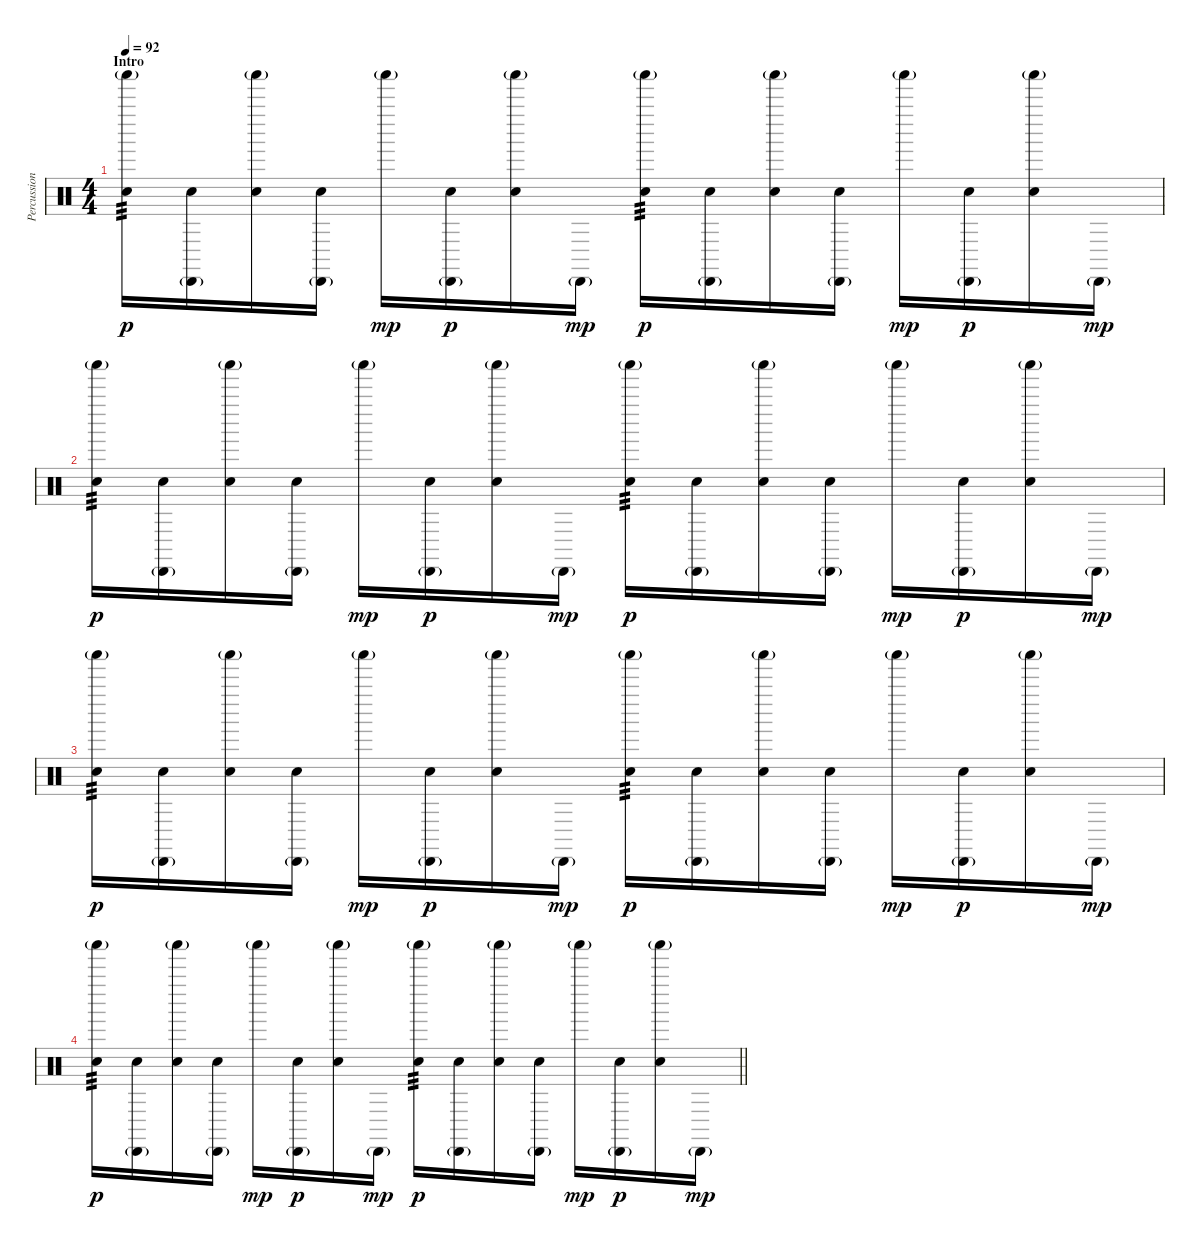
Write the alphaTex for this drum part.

\track ("Percussion2" "Percussion") {instrument percussion}
\staff {score}
\articulation defaults
\ts (4 4)
\section ("" "Intro")
\tempo 92
\clef neutral
\ks c
("Shaker (hit)"{g} "Snare (hit) 2").16{tp 3 dy p} ("Cabasa (hit)"{g} "Snare (hit) 2").16 ("Shaker (hit)"{g} "Snare (hit) 2").16 ("Cabasa (hit)"{g} "Snare (hit) 2").16 "Shaker (hit)"{g}.16{dy mp} ("Cabasa (hit)"{g} "Snare (hit) 2").16{dy p} ("Shaker (hit)"{g} "Snare (hit) 2").16 "Cabasa (hit)"{g}.16{dy mp} ("Shaker (hit)"{g} "Snare (hit) 2").16{tp 3 dy p} ("Cabasa (hit)"{g} "Snare (hit) 2").16 ("Shaker (hit)"{g} "Snare (hit) 2").16 ("Cabasa (hit)"{g} "Snare (hit) 2").16 "Shaker (hit)"{g}.16{dy mp} ("Cabasa (hit)"{g} "Snare (hit) 2").16{dy p} ("Shaker (hit)"{g} "Snare (hit) 2").16 "Cabasa (hit)"{g}.16{dy mp} |
("Shaker (hit)"{g} "Snare (hit) 2").16{tp 3 dy p} ("Cabasa (hit)"{g} "Snare (hit) 2").16 ("Shaker (hit)"{g} "Snare (hit) 2").16 ("Cabasa (hit)"{g} "Snare (hit) 2").16 "Shaker (hit)"{g}.16{dy mp} ("Cabasa (hit)"{g} "Snare (hit) 2").16{dy p} ("Shaker (hit)"{g} "Snare (hit) 2").16 "Cabasa (hit)"{g}.16{dy mp} ("Shaker (hit)"{g} "Snare (hit) 2").16{tp 3 dy p} ("Cabasa (hit)"{g} "Snare (hit) 2").16 ("Shaker (hit)"{g} "Snare (hit) 2").16 ("Cabasa (hit)"{g} "Snare (hit) 2").16 "Shaker (hit)"{g}.16{dy mp} ("Cabasa (hit)"{g} "Snare (hit) 2").16{dy p} ("Shaker (hit)"{g} "Snare (hit) 2").16 "Cabasa (hit)"{g}.16{dy mp} |
("Shaker (hit)"{g} "Snare (hit) 2").16{tp 3 dy p} ("Cabasa (hit)"{g} "Snare (hit) 2").16 ("Shaker (hit)"{g} "Snare (hit) 2").16 ("Cabasa (hit)"{g} "Snare (hit) 2").16 "Shaker (hit)"{g}.16{dy mp} ("Cabasa (hit)"{g} "Snare (hit) 2").16{dy p} ("Shaker (hit)"{g} "Snare (hit) 2").16 "Cabasa (hit)"{g}.16{dy mp} ("Shaker (hit)"{g} "Snare (hit) 2").16{tp 3 dy p} ("Cabasa (hit)"{g} "Snare (hit) 2").16 ("Shaker (hit)"{g} "Snare (hit) 2").16 ("Cabasa (hit)"{g} "Snare (hit) 2").16 "Shaker (hit)"{g}.16{dy mp} ("Cabasa (hit)"{g} "Snare (hit) 2").16{dy p} ("Shaker (hit)"{g} "Snare (hit) 2").16 "Cabasa (hit)"{g}.16{dy mp} |
\barLineRight lightlight
("Shaker (hit)"{g} "Snare (hit) 2").16{tp 3 dy p} ("Cabasa (hit)"{g} "Snare (hit) 2").16 ("Shaker (hit)"{g} "Snare (hit) 2").16 ("Cabasa (hit)"{g} "Snare (hit) 2").16 "Shaker (hit)"{g}.16{dy mp} ("Cabasa (hit)"{g} "Snare (hit) 2").16{dy p} ("Shaker (hit)"{g} "Snare (hit) 2").16 "Cabasa (hit)"{g}.16{dy mp} ("Shaker (hit)"{g} "Snare (hit) 2").16{tp 3 dy p} ("Cabasa (hit)"{g} "Snare (hit) 2").16 ("Shaker (hit)"{g} "Snare (hit) 2").16 ("Cabasa (hit)"{g} "Snare (hit) 2").16 "Shaker (hit)"{g}.16{dy mp} ("Cabasa (hit)"{g} "Snare (hit) 2").16{dy p} ("Shaker (hit)"{g} "Snare (hit) 2").16 "Cabasa (hit)"{g}.16{dy mp}
